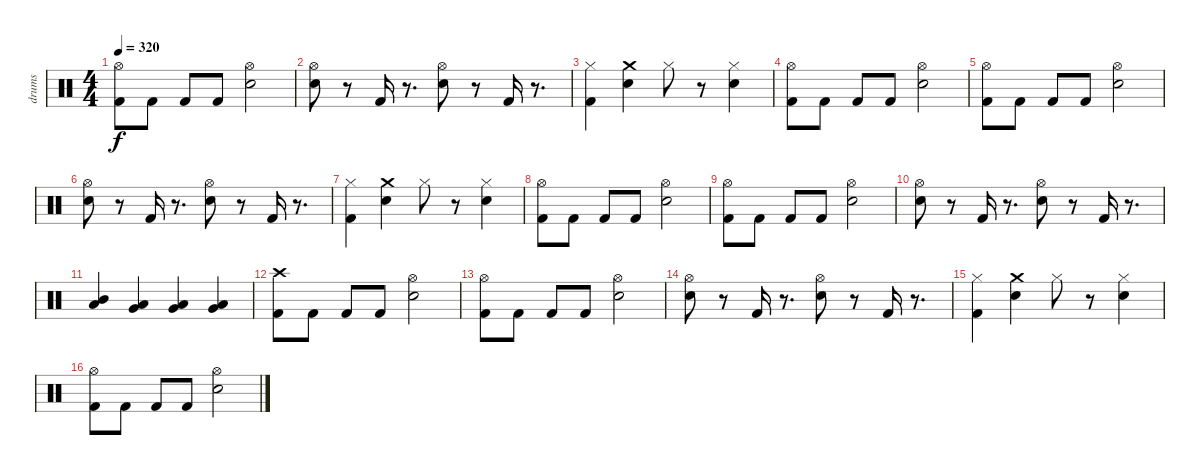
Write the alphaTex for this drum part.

\track ("drums" "drums") {instrument percussion}
\staff {score}
\articulation defaults
\ts (4 4)
\tempo 320
\clef neutral
\ks c
("Hi-Hat (open)" "Kick (hit) 2").8{dy f} "Kick (hit) 2".8 "Kick (hit) 2".8 "Kick (hit) 2".8 ("Hi-Hat (open)" "Snare (hit) 2").2 |
("Hi-Hat (open)" "Snare (hit) 2").8 r.8 "Kick (hit) 2".16 r.8{d} ("Hi-Hat (open)" "Snare (hit) 2").8 r.8 "Kick (hit) 2".16 r.8{d} |
("Hi-Hat (closed)" "Kick (hit) 2").4 ("Snare (hit) 2" "Crash medium (hit)").4 "Hi-Hat (closed)".8 r.8 ("Hi-Hat (closed)" "Snare (hit) 2").4 |
("Hi-Hat (open)" "Kick (hit) 2").8 "Kick (hit) 2".8 "Kick (hit) 2".8 "Kick (hit) 2".8 ("Hi-Hat (open)" "Snare (hit) 2").2 |
("Hi-Hat (open)" "Kick (hit) 2").8 "Kick (hit) 2".8 "Kick (hit) 2".8 "Kick (hit) 2".8 ("Hi-Hat (open)" "Snare (hit) 2").2 |
("Hi-Hat (open)" "Snare (hit) 2").8 r.8 "Kick (hit) 2".16 r.8{d} ("Hi-Hat (open)" "Snare (hit) 2").8 r.8 "Kick (hit) 2".16 r.8{d} |
("Hi-Hat (closed)" "Kick (hit) 2").4 ("Snare (hit) 2" "Crash medium (hit)").4 "Hi-Hat (closed)".8 r.8 ("Hi-Hat (closed)" "Snare (hit) 2").4 |
("Hi-Hat (open)" "Kick (hit) 2").8 "Kick (hit) 2".8 "Kick (hit) 2".8 "Kick (hit) 2".8 ("Hi-Hat (open)" "Snare (hit) 2").2 |
("Hi-Hat (open)" "Kick (hit) 2").8 "Kick (hit) 2".8 "Kick (hit) 2".8 "Kick (hit) 2".8 ("Hi-Hat (open)" "Snare (hit) 2").2 |
("Hi-Hat (open)" "Snare (hit) 2").8 r.8 "Kick (hit) 2".16 r.8{d} ("Hi-Hat (open)" "Snare (hit) 2").8 r.8 "Kick (hit) 2".16 r.8{d} |
("Mid Tom (hit)" "Low Tom (hit)").4 ("Low Tom (hit)" "Very Low Tom (hit)").4 ("Very Low Tom (hit)" "Low Floor Tom (hit)").4 ("Very Low Tom (hit)" "Low Floor Tom (hit)").4 |
("Crash high (hit)" "Kick (hit) 2").8 "Kick (hit) 2".8 "Kick (hit) 2".8 "Kick (hit) 2".8 ("Hi-Hat (open)" "Snare (hit) 2").2 |
("Hi-Hat (open)" "Kick (hit) 2").8 "Kick (hit) 2".8 "Kick (hit) 2".8 "Kick (hit) 2".8 ("Hi-Hat (open)" "Snare (hit) 2").2 |
("Hi-Hat (open)" "Snare (hit) 2").8 r.8 "Kick (hit) 2".16 r.8{d} ("Hi-Hat (open)" "Snare (hit) 2").8 r.8 "Kick (hit) 2".16 r.8{d} |
("Hi-Hat (closed)" "Kick (hit) 2").4 ("Snare (hit) 2" "Crash medium (hit)").4 "Hi-Hat (closed)".8 r.8 ("Hi-Hat (closed)" "Snare (hit) 2").4 |
("Hi-Hat (open)" "Kick (hit) 2").8 "Kick (hit) 2".8 "Kick (hit) 2".8 "Kick (hit) 2".8 ("Hi-Hat (open)" "Snare (hit) 2").2
